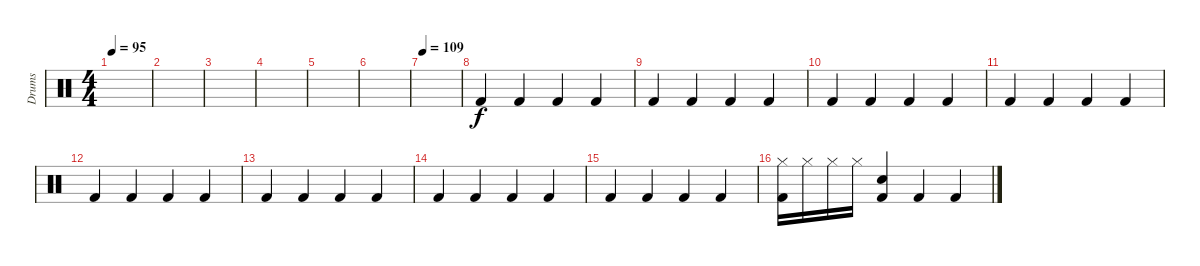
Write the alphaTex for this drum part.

\track ("Drums" "Drums") {instrument percussion}
\staff {score}
\articulation defaults
\ts (4 4)
\tempo 95
\clef neutral
\ks c
|
|
|
|
|
|
\tempo 109
|
"Kick (hit) 2".4 "Kick (hit) 2".4 "Kick (hit) 2".4 "Kick (hit) 2".4 |
"Kick (hit) 2".4 "Kick (hit) 2".4 "Kick (hit) 2".4 "Kick (hit) 2".4 |
"Kick (hit) 2".4 "Kick (hit) 2".4 "Kick (hit) 2".4 "Kick (hit) 2".4 |
"Kick (hit) 2".4 "Kick (hit) 2".4 "Kick (hit) 2".4 "Kick (hit) 2".4 |
"Kick (hit) 2".4 "Kick (hit) 2".4 "Kick (hit) 2".4 "Kick (hit) 2".4 |
"Kick (hit) 2".4 "Kick (hit) 2".4 "Kick (hit) 2".4 "Kick (hit) 2".4 |
"Kick (hit) 2".4 "Kick (hit) 2".4 "Kick (hit) 2".4 "Kick (hit) 2".4 |
"Kick (hit) 2".4 "Kick (hit) 2".4 "Kick (hit) 2".4 "Kick (hit) 2".4 |
("Hi-Hat (closed)" "Kick (hit) 2").16 "Hi-Hat (closed)".16 "Hi-Hat (closed)".16 "Hi-Hat (closed)".16 ("Snare (hit) 2" "Kick (hit) 2").4 "Kick (hit) 2".4 "Kick (hit) 2".4
